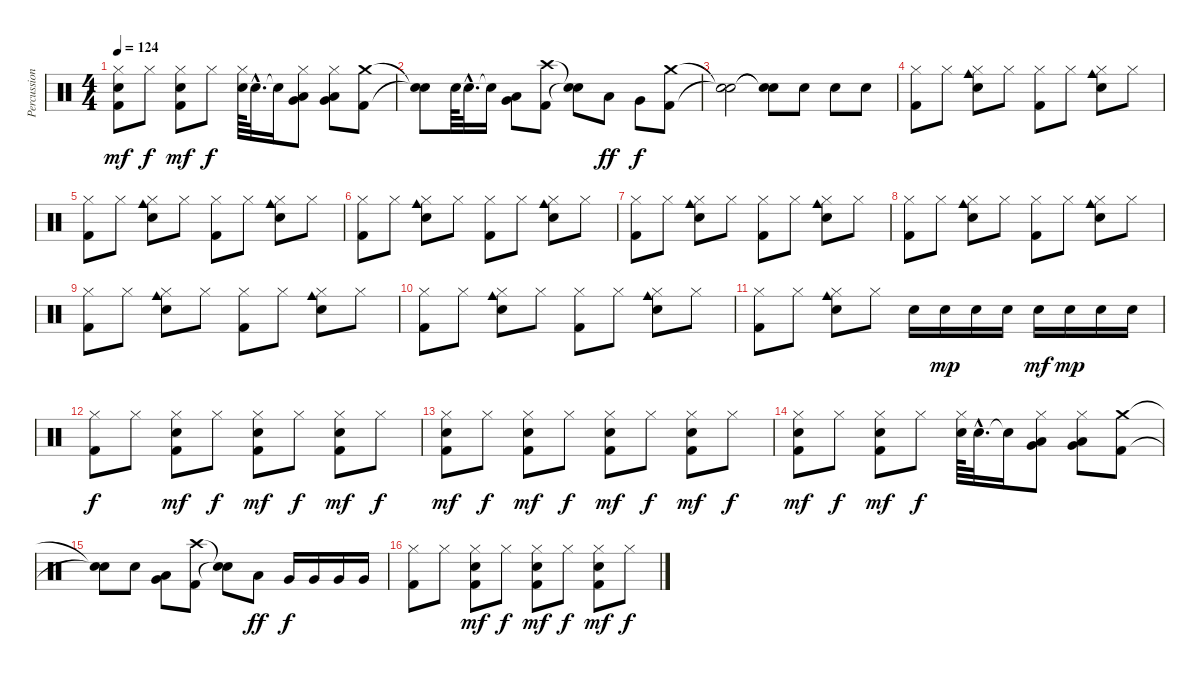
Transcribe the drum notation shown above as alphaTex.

\track ("Percussion" "Percussion") {instrument percussion}
\staff {score}
\articulation defaults
\ts (4 4)
\tempo 124
\clef neutral
\ks c
("Hi-Hat (closed)" "Metronome (bell)" "Kick (hit) 2").8{dy mf} "Hi-Hat (closed)".8{dy f} ("Hi-Hat (closed)" "Metronome (bell)" "Kick (hit) 2").8{dy mf} "Hi-Hat (closed)".8{dy f} ("Hi-Hat (closed)" "Metronome (bell)").64 "Metronome (bell)"{hac}.32{d} "Snare (hit)"{t}.16 ("Hi-Hat (closed)" "Low Tom (hit)" "Very Low Tom (hit)").8 ("Hi-Hat (closed)" "Very Low Tom (hit)" "Low Floor Tom (hit)").8 ("Crash medium (hit)" "Kick (hit) 2").8 |
("Snare (hit)"{t} "Snare (hit)"{t}).8 "Metronome (bell)".64 "Metronome (bell)"{hac}.32{d} "Snare (hit)"{t}.16 ("Low Tom (hit)" "Very Low Tom (hit)").8 ("Crash high (hit)" "Kick (hit) 2").8 ("Snare (hit)"{t} "Snare (hit)"{t}).8 "Low Tom (hit)".8{dy ff} "Very Low Tom (hit)".8{dy f} ("Crash medium (hit)" "Kick (hit) 2").8 |
("Snare (hit)"{t} "Snare (hit)"{t}).2 ("Snare (hit)"{t} "Snare (hit)"{t}).8 "Metronome (bell)".8 "Metronome (bell)".8 "Metronome (bell)".8 |
("Hi-Hat (closed)" "Kick (hit) 2").8 "Hi-Hat (closed)".8 ("Hi-Hat (closed)" "Cowbell medium (hit)" "Metronome (bell)").8 "Hi-Hat (closed)".8 ("Hi-Hat (closed)" "Kick (hit) 2").8 "Hi-Hat (closed)".8 ("Hi-Hat (closed)" "Cowbell medium (hit)" "Metronome (bell)").8 "Hi-Hat (closed)".8 |
("Hi-Hat (closed)" "Kick (hit) 2").8 "Hi-Hat (closed)".8 ("Hi-Hat (closed)" "Cowbell medium (hit)" "Metronome (bell)").8 "Hi-Hat (closed)".8 ("Hi-Hat (closed)" "Kick (hit) 2").8 "Hi-Hat (closed)".8 ("Hi-Hat (closed)" "Cowbell medium (hit)" "Metronome (bell)").8 "Hi-Hat (closed)".8 |
("Hi-Hat (closed)" "Kick (hit) 2").8 "Hi-Hat (closed)".8 ("Hi-Hat (closed)" "Cowbell medium (hit)" "Metronome (bell)").8 "Hi-Hat (closed)".8 ("Hi-Hat (closed)" "Kick (hit) 2").8 "Hi-Hat (closed)".8 ("Hi-Hat (closed)" "Cowbell medium (hit)" "Metronome (bell)").8 "Hi-Hat (closed)".8 |
("Hi-Hat (closed)" "Kick (hit) 2").8 "Hi-Hat (closed)".8 ("Hi-Hat (closed)" "Cowbell medium (hit)" "Metronome (bell)").8 "Hi-Hat (closed)".8 ("Hi-Hat (closed)" "Kick (hit) 2").8 "Hi-Hat (closed)".8 ("Hi-Hat (closed)" "Cowbell medium (hit)" "Metronome (bell)").8 "Hi-Hat (closed)".8 |
("Hi-Hat (closed)" "Kick (hit) 2").8 "Hi-Hat (closed)".8 ("Hi-Hat (closed)" "Cowbell medium (hit)" "Metronome (bell)").8 "Hi-Hat (closed)".8 ("Hi-Hat (closed)" "Kick (hit) 2").8 "Hi-Hat (closed)".8 ("Hi-Hat (closed)" "Cowbell medium (hit)" "Metronome (bell)").8 "Hi-Hat (closed)".8 |
("Hi-Hat (closed)" "Kick (hit) 2").8 "Hi-Hat (closed)".8 ("Hi-Hat (closed)" "Cowbell medium (hit)" "Metronome (bell)").8 "Hi-Hat (closed)".8 ("Hi-Hat (closed)" "Kick (hit) 2").8 "Hi-Hat (closed)".8 ("Hi-Hat (closed)" "Cowbell medium (hit)" "Metronome (bell)").8 "Hi-Hat (closed)".8 |
("Hi-Hat (closed)" "Kick (hit) 2").8 "Hi-Hat (closed)".8 ("Hi-Hat (closed)" "Cowbell medium (hit)" "Metronome (bell)").8 "Hi-Hat (closed)".8 ("Hi-Hat (closed)" "Kick (hit) 2").8 "Hi-Hat (closed)".8 ("Hi-Hat (closed)" "Cowbell medium (hit)" "Metronome (bell)").8 "Hi-Hat (closed)".8 |
("Hi-Hat (closed)" "Kick (hit) 2").8 "Hi-Hat (closed)".8 ("Hi-Hat (closed)" "Cowbell medium (hit)" "Metronome (bell)").8 "Hi-Hat (closed)".8 "Metronome (bell)".16 "Metronome (bell)".16{dy mp} "Metronome (bell)".16 "Metronome (bell)".16 "Metronome (bell)".16{dy mf} "Metronome (bell)".16{dy mp} "Metronome (bell)".16 "Metronome (bell)".16 |
("Hi-Hat (closed)" "Kick (hit) 2").8{dy f} "Hi-Hat (closed)".8 ("Hi-Hat (closed)" "Metronome (bell)" "Kick (hit) 2").8{dy mf} "Hi-Hat (closed)".8{dy f} ("Hi-Hat (closed)" "Metronome (bell)" "Kick (hit) 2").8{dy mf} "Hi-Hat (closed)".8{dy f} ("Hi-Hat (closed)" "Metronome (bell)" "Kick (hit) 2").8{dy mf} "Hi-Hat (closed)".8{dy f} |
("Hi-Hat (closed)" "Metronome (bell)" "Kick (hit) 2").8{dy mf} "Hi-Hat (closed)".8{dy f} ("Hi-Hat (closed)" "Metronome (bell)" "Kick (hit) 2").8{dy mf} "Hi-Hat (closed)".8{dy f} ("Hi-Hat (closed)" "Metronome (bell)" "Kick (hit) 2").8{dy mf} "Hi-Hat (closed)".8{dy f} ("Hi-Hat (closed)" "Metronome (bell)" "Kick (hit) 2").8{dy mf} "Hi-Hat (closed)".8{dy f} |
("Hi-Hat (closed)" "Metronome (bell)" "Kick (hit) 2").8{dy mf} "Hi-Hat (closed)".8{dy f} ("Hi-Hat (closed)" "Metronome (bell)" "Kick (hit) 2").8{dy mf} "Hi-Hat (closed)".8{dy f} ("Hi-Hat (closed)" "Metronome (bell)").64 "Metronome (bell)"{hac}.32{d} "Snare (hit)"{t}.16 ("Hi-Hat (closed)" "Low Tom (hit)" "Very Low Tom (hit)").8 ("Hi-Hat (closed)" "Very Low Tom (hit)" "Low Floor Tom (hit)").8 ("Crash medium (hit)" "Kick (hit) 2").8 |
("Snare (hit)"{t} "Snare (hit)"{t}).8 "Metronome (bell)".8 ("Low Tom (hit)" "Very Low Tom (hit)").8 ("Crash high (hit)" "Kick (hit) 2").8 ("Snare (hit)"{t} "Snare (hit)"{t}).8 "Low Tom (hit)".8{dy ff} "Very Low Tom (hit)".16{dy f} "Very Low Tom (hit)".16 "Very Low Tom (hit)".16 "Very Low Tom (hit)".16 |
("Hi-Hat (closed)" "Kick (hit) 2").8 "Hi-Hat (closed)".8 ("Hi-Hat (closed)" "Metronome (bell)" "Kick (hit) 2").8{dy mf} "Hi-Hat (closed)".8{dy f} ("Hi-Hat (closed)" "Metronome (bell)" "Kick (hit) 2").8{dy mf} "Hi-Hat (closed)".8{dy f} ("Hi-Hat (closed)" "Metronome (bell)" "Kick (hit) 2").8{dy mf} "Hi-Hat (closed)".8{dy f}
